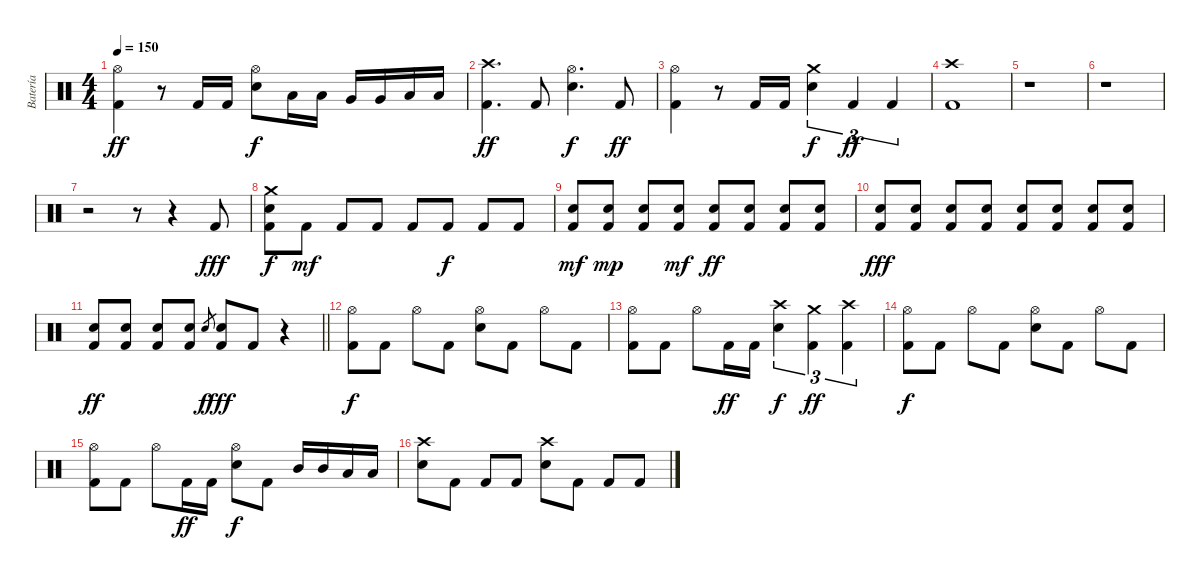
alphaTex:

\track ("Batería" "Batería") {instrument percussion}
\staff {score}
\articulation defaults
\ts (4 4)
\tempo 150
\clef neutral
\ks c
("Hi-Hat (open)" "Kick (hit) 2").4{dy ff} r.8 "Kick (hit) 2".16 "Kick (hit) 2".16 ("Hi-Hat (open)" "Electric Snare (hit)").8{dy f} "Low Tom (hit)".16 "Low Tom (hit)".16 "Very Low Tom (hit)".16 "Very Low Tom (hit)".16 "Low Floor Tom (hit)".16 "Low Floor Tom (hit)".16 |
("Crash high (hit)" "Kick (hit) 2").4{d dy ff} "Kick (hit) 2".8 ("Hi-Hat (open)" "Electric Snare (hit)").4{d dy f} "Kick (hit) 2".8{dy ff} |
("Hi-Hat (open)" "Kick (hit) 2").4 r.8 "Kick (hit) 2".16 "Kick (hit) 2".16 ("Crash medium (hit)" "Electric Snare (hit)").4{tu (3 2) dy f} "Kick (hit) 2".4{tu (3 2) dy ff} "Kick (hit) 2".4{tu (3 2)} |
("Crash high (hit)" "Kick (hit) 2").1 |
r.1 |
r.1 |
r.2 r.8 r.4 "Kick (hit) 2".8{dy fff} |
("Crash medium (hit)" "Electric Snare (hit)" "Kick (hit) 2").8{dy f} "Kick (hit) 2".8{dy mf} "Kick (hit) 2".8 "Kick (hit) 2".8 "Kick (hit) 2".8 "Kick (hit) 2".8{dy f} "Kick (hit) 2".8 "Kick (hit) 2".8 |
("Electric Snare (hit)" "Kick (hit) 2").8{dy mf} ("Electric Snare (hit)" "Kick (hit) 2").8{dy mp} ("Electric Snare (hit)" "Kick (hit) 2").8 ("Electric Snare (hit)" "Kick (hit) 2").8{dy mf} ("Electric Snare (hit)" "Kick (hit) 2").8{dy ff} ("Electric Snare (hit)" "Kick (hit) 2").8 ("Electric Snare (hit)" "Kick (hit) 2").8 ("Electric Snare (hit)" "Kick (hit) 2").8 |
("Electric Snare (hit)" "Kick (hit) 2").8{dy fff} ("Electric Snare (hit)" "Kick (hit) 2").8 ("Electric Snare (hit)" "Kick (hit) 2").8 ("Electric Snare (hit)" "Kick (hit) 2").8 ("Electric Snare (hit)" "Kick (hit) 2").8 ("Electric Snare (hit)" "Kick (hit) 2").8 ("Electric Snare (hit)" "Kick (hit) 2").8 ("Electric Snare (hit)" "Kick (hit) 2").8 |
\barLineRight lightlight
("Electric Snare (hit)" "Kick (hit) 2").8{dy ff} ("Electric Snare (hit)" "Kick (hit) 2").8 ("Electric Snare (hit)" "Kick (hit) 2").8 ("Electric Snare (hit)" "Kick (hit) 2").8 "Electric Snare (hit)".8{gr dy f} ("Electric Snare (hit)" "Kick (hit) 2").8{dy fff} "Kick (hit) 2".8 r.4 |
("Hi-Hat (open)" "Kick (hit) 2").8{dy f} "Kick (hit) 2".8 "Hi-Hat (open)".8 "Kick (hit) 2".8 ("Hi-Hat (open)" "Electric Snare (hit)").8 "Kick (hit) 2".8 "Hi-Hat (open)".8 "Kick (hit) 2".8 |
("Hi-Hat (open)" "Kick (hit) 2").8 "Kick (hit) 2".8 "Hi-Hat (open)".8 "Kick (hit) 2".16{dy ff} "Kick (hit) 2".16 ("Crash high (hit)" "Electric Snare (hit)").4{tu (3 2) dy f} ("Crash medium (hit)" "Kick (hit) 2").4{tu (3 2) dy ff} ("Crash high (hit)" "Kick (hit) 2").4{tu (3 2)} |
("Hi-Hat (open)" "Kick (hit) 2").8{dy f} "Kick (hit) 2".8 "Hi-Hat (open)".8 "Kick (hit) 2".8 ("Hi-Hat (open)" "Electric Snare (hit)").8 "Kick (hit) 2".8 "Hi-Hat (open)".8 "Kick (hit) 2".8 |
("Hi-Hat (open)" "Kick (hit) 2").8 "Kick (hit) 2".8 "Hi-Hat (open)".8 "Kick (hit) 2".16{dy ff} "Kick (hit) 2".16 ("Hi-Hat (open)" "Electric Snare (hit)").8{dy f} "Kick (hit) 2".8 "Mid Tom (hit)".16 "Mid Tom (hit)".16 "Low Tom (hit)".16 "Low Tom (hit)".16 |
("Crash high (hit)" "Electric Snare (hit)").8 "Kick (hit) 2".8 "Kick (hit) 2".8 "Kick (hit) 2".8 ("Crash high (hit)" "Electric Snare (hit)").8 "Kick (hit) 2".8 "Kick (hit) 2".8 "Kick (hit) 2".8
